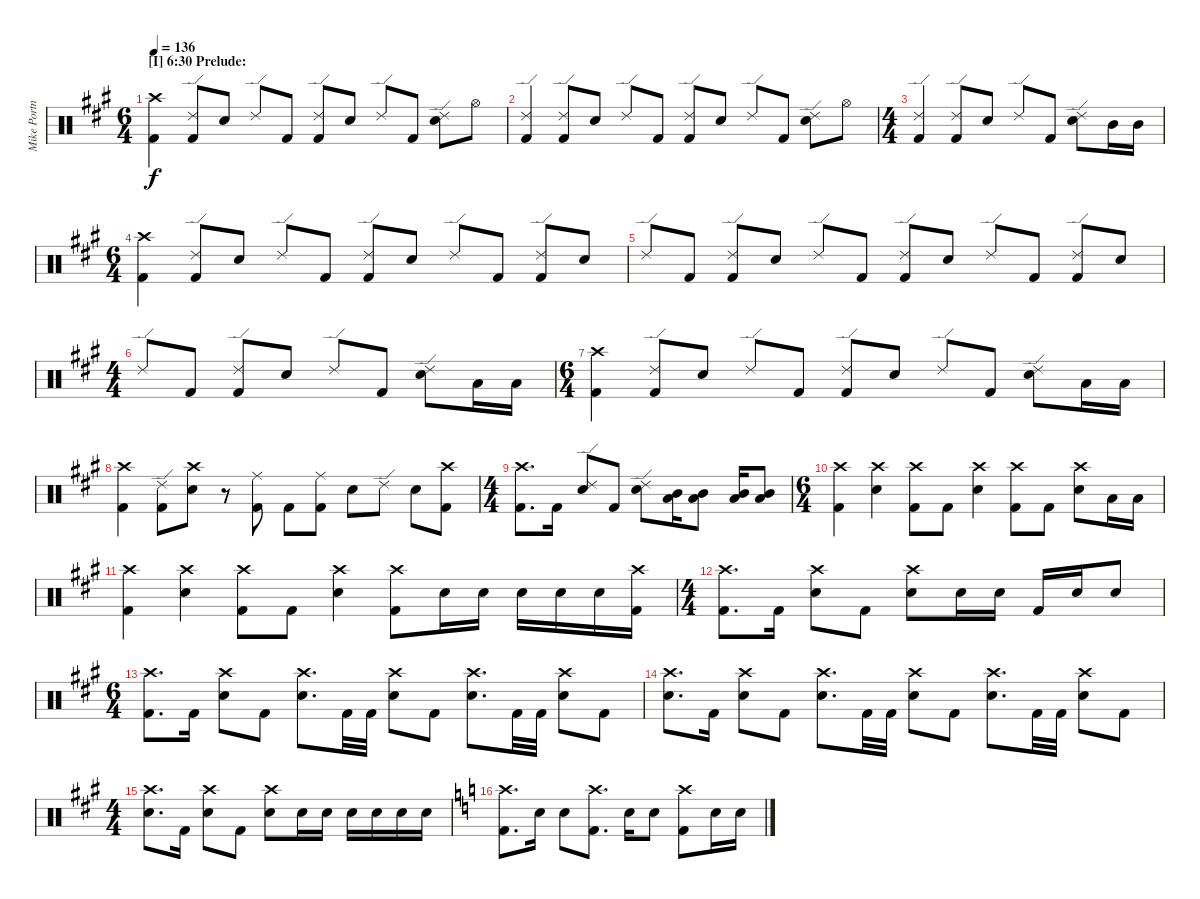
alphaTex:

\track ("Mike Portnoy - Drum" "Mike Portn") {instrument percussion}
\staff {score}
\articulation defaults
\ts (6 4)
\section ("" "[I] 6:30 Prelude:")
\tempo 136
\clef neutral
\ks a
("Crash high (hit)" "Kick (hit) 2").4{dy f} ("Ride (edge) 2" "Kick (hit) 2").8 "Electric Snare (hit)".8 "Ride (edge) 2".8 "Kick (hit) 2".8 ("Ride (edge) 2" "Kick (hit) 2").8 "Electric Snare (hit)".8 "Ride (edge) 2".8 "Kick (hit) 2".8 ("Ride (edge) 2" "Electric Snare (hit)").8 "Hi-Hat (open)".8 |
("Ride (edge) 2" "Kick (hit) 2").4 ("Ride (edge) 2" "Kick (hit) 2").8 "Electric Snare (hit)".8 "Ride (edge) 2".8 "Kick (hit) 2".8 ("Ride (edge) 2" "Kick (hit) 2").8 "Electric Snare (hit)".8 "Ride (edge) 2".8 "Kick (hit) 2".8 ("Ride (edge) 2" "Electric Snare (hit)").8 "Hi-Hat (open)".8 |
\ts (4 4)
("Ride (edge) 2" "Kick (hit) 2").4 ("Ride (edge) 2" "Kick (hit) 2").8 "Electric Snare (hit)".8 "Ride (edge) 2".8 "Kick (hit) 2".8 ("Ride (edge) 2" "Electric Snare (hit)").8 "Mid Tom (hit)".16 "Mid Tom (hit)".16 |
\ts (6 4)
("Crash high (hit)" "Kick (hit) 2").4 ("Ride (edge) 2" "Kick (hit) 2").8 "Electric Snare (hit)".8 "Ride (edge) 2".8 "Kick (hit) 2".8 ("Ride (edge) 2" "Kick (hit) 2").8 "Electric Snare (hit)".8 "Ride (edge) 2".8 "Kick (hit) 2".8 ("Ride (edge) 2" "Kick (hit) 2").8 "Electric Snare (hit)".8 |
"Ride (edge) 2".8 "Kick (hit) 2".8 ("Ride (edge) 2" "Kick (hit) 2").8 "Electric Snare (hit)".8 "Ride (edge) 2".8 "Kick (hit) 2".8 ("Ride (edge) 2" "Kick (hit) 2").8 "Electric Snare (hit)".8 "Ride (edge) 2".8 "Kick (hit) 2".8 ("Ride (edge) 2" "Kick (hit) 2").8 "Electric Snare (hit)".8 |
\ts (4 4)
"Ride (edge) 2".8 "Kick (hit) 2".8 ("Ride (edge) 2" "Kick (hit) 2").8 "Electric Snare (hit)".8 "Ride (edge) 2".8 "Kick (hit) 2".8 ("Ride (edge) 2" "Electric Snare (hit)").8 "Low Tom (hit)".16 "Low Tom (hit)".16 |
\ts (6 4)
("Crash high (hit)" "Kick (hit) 2").4 ("Ride (edge) 2" "Kick (hit) 2").8 "Electric Snare (hit)".8 "Ride (edge) 2".8 "Kick (hit) 2".8 ("Ride (edge) 2" "Kick (hit) 2").8 "Electric Snare (hit)".8 "Ride (edge) 2".8 "Kick (hit) 2".8 ("Ride (edge) 2" "Electric Snare (hit)").8 "Low Tom (hit)".16 "Low Tom (hit)".16 |
("Crash high (hit)" "Kick (hit) 2").4 ("Ride (edge) 2" "Kick (hit) 2").8 ("Crash high (hit)" "Electric Snare (hit)").8 r.8 ("Ride (middle)" "Kick (hit) 2").8 "Kick (hit) 2".8 ("Ride (middle)" "Kick (hit) 2").8 "Electric Snare (hit)".8 "Ride (edge) 2".8 "Electric Snare (hit)".8 ("Crash high (hit)" "Kick (hit) 2").8 |
\ts (4 4)
("Crash high (hit)" "Kick (hit) 2").8{d} "Kick (hit) 2".16 ("Ride (edge) 2" "Electric Snare (hit)").8 "Kick (hit) 2".8 ("Ride (edge) 2" "Electric Snare (hit)").8 ("Mid Tom (hit)" "Low Tom (hit)").16 ("Mid Tom (hit)" "Low Tom (hit)").8 ("Mid Tom (hit)" "Low Tom (hit)").16 ("Mid Tom (hit)" "Low Tom (hit)").8 |
\ts (6 4)
("Crash high (hit)" "Kick (hit) 2").4 ("Crash high (hit)" "Electric Snare (hit)").4 ("Crash high (hit)" "Kick (hit) 2").8 "Kick (hit) 2".8 ("Crash high (hit)" "Electric Snare (hit)").4 ("Crash high (hit)" "Kick (hit) 2").8 "Kick (hit) 2".8 ("Crash high (hit)" "Electric Snare (hit)").8 "Low Tom (hit)".16 "Low Tom (hit)".16 |
("Crash high (hit)" "Kick (hit) 2").4 ("Crash high (hit)" "Electric Snare (hit)").4 ("Crash high (hit)" "Kick (hit) 2").8 "Kick (hit) 2".8 ("Crash high (hit)" "Electric Snare (hit)").4 ("Crash high (hit)" "Kick (hit) 2").8 "Electric Snare (hit)".16 "Electric Snare (hit)".16 "Electric Snare (hit)".16 "Electric Snare (hit)".16 "Electric Snare (hit)".16 ("Crash high (hit)" "Kick (hit) 2").16 |
\ts (4 4)
("Crash high (hit)" "Kick (hit) 2").8{d} "Kick (hit) 2".16 ("Crash high (hit)" "Snare (hit) 2").8 "Kick (hit) 2".8 ("Crash high (hit)" "Electric Snare (hit)").8 "Electric Snare (hit)".16 "Electric Snare (hit)".16 "Kick (hit) 2".16 "Electric Snare (hit)".16 "Electric Snare (hit)".8 |
\ts (6 4)
("Crash high (hit)" "Kick (hit) 2").8{d} "Kick (hit) 2".16 ("Crash high (hit)" "Electric Snare (hit)").8 "Kick (hit) 2".8 ("Crash high (hit)" "Electric Snare (hit)").8{d} "Kick (hit) 2".32 "Kick (hit) 2".32 ("Crash high (hit)" "Electric Snare (hit)").8 "Kick (hit) 2".8 ("Crash high (hit)" "Electric Snare (hit)").8{d} "Kick (hit) 2".32 "Kick (hit) 2".32 ("Crash high (hit)" "Electric Snare (hit)").8 "Kick (hit) 2".8 |
("Crash high (hit)" "Electric Snare (hit)").8{d} "Kick (hit) 2".16 ("Crash high (hit)" "Electric Snare (hit)").8 "Kick (hit) 2".8 ("Crash high (hit)" "Electric Snare (hit)").8{d} "Kick (hit) 2".32 "Kick (hit) 2".32 ("Crash high (hit)" "Electric Snare (hit)").8 "Kick (hit) 2".8 ("Crash high (hit)" "Electric Snare (hit)").8{d} "Kick (hit) 2".32 "Kick (hit) 2".32 ("Crash high (hit)" "Electric Snare (hit)").8 "Kick (hit) 2".8 |
\ts (4 4)
("Crash high (hit)" "Electric Snare (hit)").8{d} "Kick (hit) 2".16 ("Crash high (hit)" "Electric Snare (hit)").8 "Kick (hit) 2".8 ("Crash high (hit)" "Electric Snare (hit)").8 "Electric Snare (hit)".16 "Electric Snare (hit)".16 "Electric Snare (hit)".16 "Electric Snare (hit)".16 "Electric Snare (hit)".16 "Electric Snare (hit)".16 |
\ks c
("Crash high (hit)" "Kick (hit) 2").8{d} "Electric Snare (hit)".16 "Electric Snare (hit)".8 ("Crash high (hit)" "Kick (hit) 2").8{d} "Electric Snare (hit)".16 "Electric Snare (hit)".8 ("Crash high (hit)" "Kick (hit) 2").8 "Electric Snare (hit)".16 "Electric Snare (hit)".16
